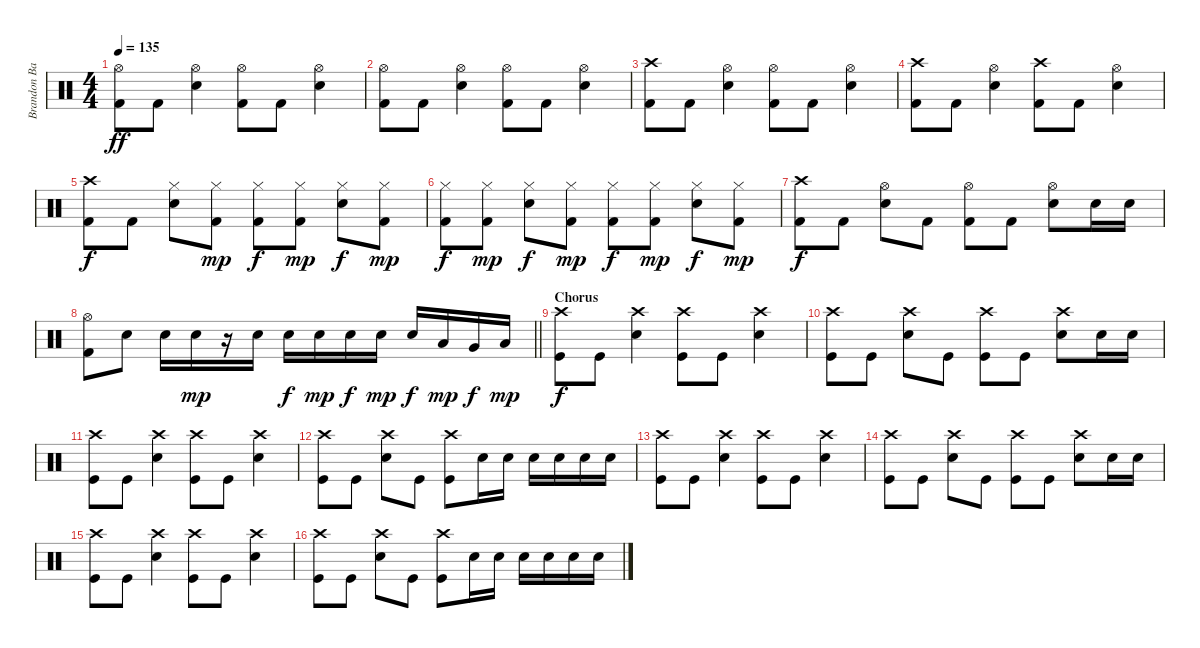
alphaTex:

\track ("Brandon Barnes - Drums" "Brandon Ba") {instrument percussion}
\staff {score}
\articulation defaults
\ts (4 4)
\tempo 135
\clef neutral
\ks c
("Hi-Hat (open)" "Kick (hit) 2").8{dy ff} "Kick (hit) 2".8 ("Snare (hit) 2" "Hi-Hat (open)").4 ("Hi-Hat (open)" "Kick (hit) 2").8 "Kick (hit) 2".8 ("Snare (hit) 2" "Hi-Hat (open)").4 |
("Hi-Hat (open)" "Kick (hit) 2").8 "Kick (hit) 2".8 ("Snare (hit) 2" "Hi-Hat (open)").4 ("Hi-Hat (open)" "Kick (hit) 2").8 "Kick (hit) 2".8 ("Snare (hit) 2" "Hi-Hat (open)").4 |
("Kick (hit) 2" "Crash high (hit)").8 "Kick (hit) 2".8 ("Snare (hit) 2" "Hi-Hat (open)").4 ("Hi-Hat (open)" "Kick (hit) 2").8 "Kick (hit) 2".8 ("Snare (hit) 2" "Hi-Hat (open)").4 |
("Kick (hit) 2" "Crash high (hit)").8 "Kick (hit) 2".8 ("Snare (hit) 2" "Hi-Hat (open)").4 ("Kick (hit) 2" "Crash high (hit)").8 "Kick (hit) 2".8 ("Snare (hit) 2" "Hi-Hat (open)").4 |
("Crash high (hit)" "Kick (hit) 2").8{dy f} "Kick (hit) 2".8 ("Snare (hit) 2" "Hi-Hat (closed)").8 ("Hi-Hat (closed)" "Kick (hit) 2").8{dy mp} ("Kick (hit) 2" "Hi-Hat (closed)").8{dy f} ("Kick (hit) 2" "Hi-Hat (closed)").8{dy mp} ("Snare (hit) 2" "Hi-Hat (closed)").8{dy f} ("Hi-Hat (closed)" "Kick (hit) 2").8{dy mp} |
("Kick (hit) 2" "Hi-Hat (closed)").8{dy f} ("Kick (hit) 2" "Hi-Hat (closed)").8{dy mp} ("Snare (hit) 2" "Hi-Hat (closed)").8{dy f} ("Hi-Hat (closed)" "Kick (hit) 2").8{dy mp} ("Kick (hit) 2" "Hi-Hat (closed)").8{dy f} ("Kick (hit) 2" "Hi-Hat (closed)").8{dy mp} ("Snare (hit) 2" "Hi-Hat (closed)").8{dy f} ("Hi-Hat (closed)" "Kick (hit) 2").8{dy mp} |
("Crash high (hit)" "Kick (hit) 2").8{dy f} "Kick (hit) 2".8 ("Hi-Hat (open)" "Snare (hit) 2").8 "Kick (hit) 2".8 ("Kick (hit) 2" "Hi-Hat (open)").8 "Kick (hit) 2".8 ("Hi-Hat (open)" "Snare (hit) 2").8 "Snare (hit) 2".16 "Snare (hit) 2".16 |
\barLineRight lightlight
("Kick (hit) 2" "Hi-Hat (open)").8 "Snare (hit) 2".8 "Snare (hit) 2".16 "Snare (hit) 2".16{dy mp} r.16 "Snare (hit) 2".16 "Snare (hit) 2".16{dy f} "Snare (hit) 2".16{dy mp} "Snare (hit) 2".16{dy f} "Snare (hit) 2".16{dy mp} "Snare (hit) 2".16{dy f} "Low Tom (hit)".16{dy mp} "Very Low Tom (hit)".16{dy f} "Low Floor Tom (hit)".16{dy mp} |
\section ("" "Chorus")
("Crash high (hit)" "Kick (hit)").8{dy f} "Kick (hit)".8 ("Snare (hit) 2" "Crash high (hit)").4 ("Crash high (hit)" "Kick (hit)").8 "Kick (hit)".8 ("Snare (hit) 2" "Crash high (hit)").4 |
("Crash high (hit)" "Kick (hit)").8 "Kick (hit)".8 ("Snare (hit) 2" "Crash high (hit)").8 "Kick (hit)".8 ("Crash high (hit)" "Kick (hit)").8 "Kick (hit)".8 ("Snare (hit) 2" "Crash high (hit)").8 "Snare (hit) 2".16 "Snare (hit) 2".16 |
("Crash high (hit)" "Kick (hit)").8 "Kick (hit)".8 ("Snare (hit) 2" "Crash high (hit)").4 ("Crash high (hit)" "Kick (hit)").8 "Kick (hit)".8 ("Snare (hit) 2" "Crash high (hit)").4 |
("Crash high (hit)" "Kick (hit)").8 "Kick (hit)".8 ("Snare (hit) 2" "Crash high (hit)").8 "Kick (hit)".8 ("Crash high (hit)" "Kick (hit)").8 "Snare (hit) 2".16 "Snare (hit) 2".16 "Snare (hit) 2".16 "Snare (hit) 2".16 "Snare (hit) 2".16 "Snare (hit) 2".16 |
("Crash high (hit)" "Kick (hit)").8 "Kick (hit)".8 ("Snare (hit) 2" "Crash high (hit)").4 ("Crash high (hit)" "Kick (hit)").8 "Kick (hit)".8 ("Snare (hit) 2" "Crash high (hit)").4 |
("Crash high (hit)" "Kick (hit)").8 "Kick (hit)".8 ("Snare (hit) 2" "Crash high (hit)").8 "Kick (hit)".8 ("Crash high (hit)" "Kick (hit)").8 "Kick (hit)".8 ("Snare (hit) 2" "Crash high (hit)").8 "Snare (hit) 2".16 "Snare (hit) 2".16 |
("Crash high (hit)" "Kick (hit)").8 "Kick (hit)".8 ("Snare (hit) 2" "Crash high (hit)").4 ("Crash high (hit)" "Kick (hit)").8 "Kick (hit)".8 ("Snare (hit) 2" "Crash high (hit)").4 |
("Crash high (hit)" "Kick (hit)").8 "Kick (hit)".8 ("Snare (hit) 2" "Crash high (hit)").8 "Kick (hit)".8 ("Crash high (hit)" "Kick (hit)").8 "Snare (hit) 2".16 "Snare (hit) 2".16 "Snare (hit) 2".16 "Snare (hit) 2".16 "Snare (hit) 2".16 "Snare (hit) 2".16
